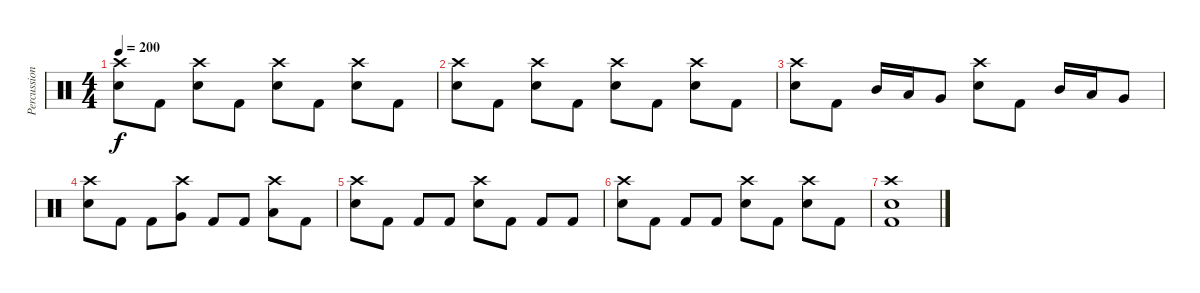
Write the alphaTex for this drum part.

\track ("Percussion" "Percussion") {instrument percussion}
\staff {score}
\articulation defaults
\ts (4 4)
\tempo 200
\clef neutral
\ks c
("Crash high (hit)" "Snare (hit) 2").8{dy f} "Kick (hit) 2".8 ("Crash high (hit)" "Snare (hit) 2").8 "Kick (hit) 2".8 ("Crash high (hit)" "Snare (hit) 2").8 "Kick (hit) 2".8 ("Crash high (hit)" "Snare (hit) 2").8 "Kick (hit) 2".8 |
("Crash high (hit)" "Snare (hit) 2").8 "Kick (hit) 2".8 ("Crash high (hit)" "Snare (hit) 2").8 "Kick (hit) 2".8 ("Crash high (hit)" "Snare (hit) 2").8 "Kick (hit) 2".8 ("Crash high (hit)" "Snare (hit) 2").8 "Kick (hit) 2".8 |
("Crash high (hit)" "Snare (hit) 2").8 "Kick (hit) 2".8 "Mid Tom (hit)".16 "Low Tom (hit)".16 "Very Low Tom (hit)".8 ("Crash high (hit)" "Snare (hit) 2").8 "Kick (hit) 2".8 "Mid Tom (hit)".16 "Low Tom (hit)".16 "Very Low Tom (hit)".8 |
("Crash high (hit)" "Snare (hit) 2").8 "Kick (hit) 2".8 "Kick (hit) 2".8 ("Crash high (hit)" "Very Low Tom (hit)").8 "Kick (hit) 2".8 "Kick (hit) 2".8 ("Crash high (hit)" "Low Floor Tom (hit)").8 "Kick (hit) 2".8 |
("Crash high (hit)" "Snare (hit) 2").8 "Kick (hit) 2".8 "Kick (hit) 2".8 "Kick (hit) 2".8 ("Crash high (hit)" "Snare (hit) 2").8 "Kick (hit) 2".8 "Kick (hit) 2".8 "Kick (hit) 2".8 |
("Crash high (hit)" "Snare (hit) 2").8 "Kick (hit) 2".8 "Kick (hit) 2".8 "Kick (hit) 2".8 ("Crash high (hit)" "Snare (hit) 2").8 "Kick (hit) 2".8 ("Crash high (hit)" "Snare (hit) 2").8 "Kick (hit) 2".8 |
("Crash high (hit)" "Snare (hit) 2" "Kick (hit) 2").1
